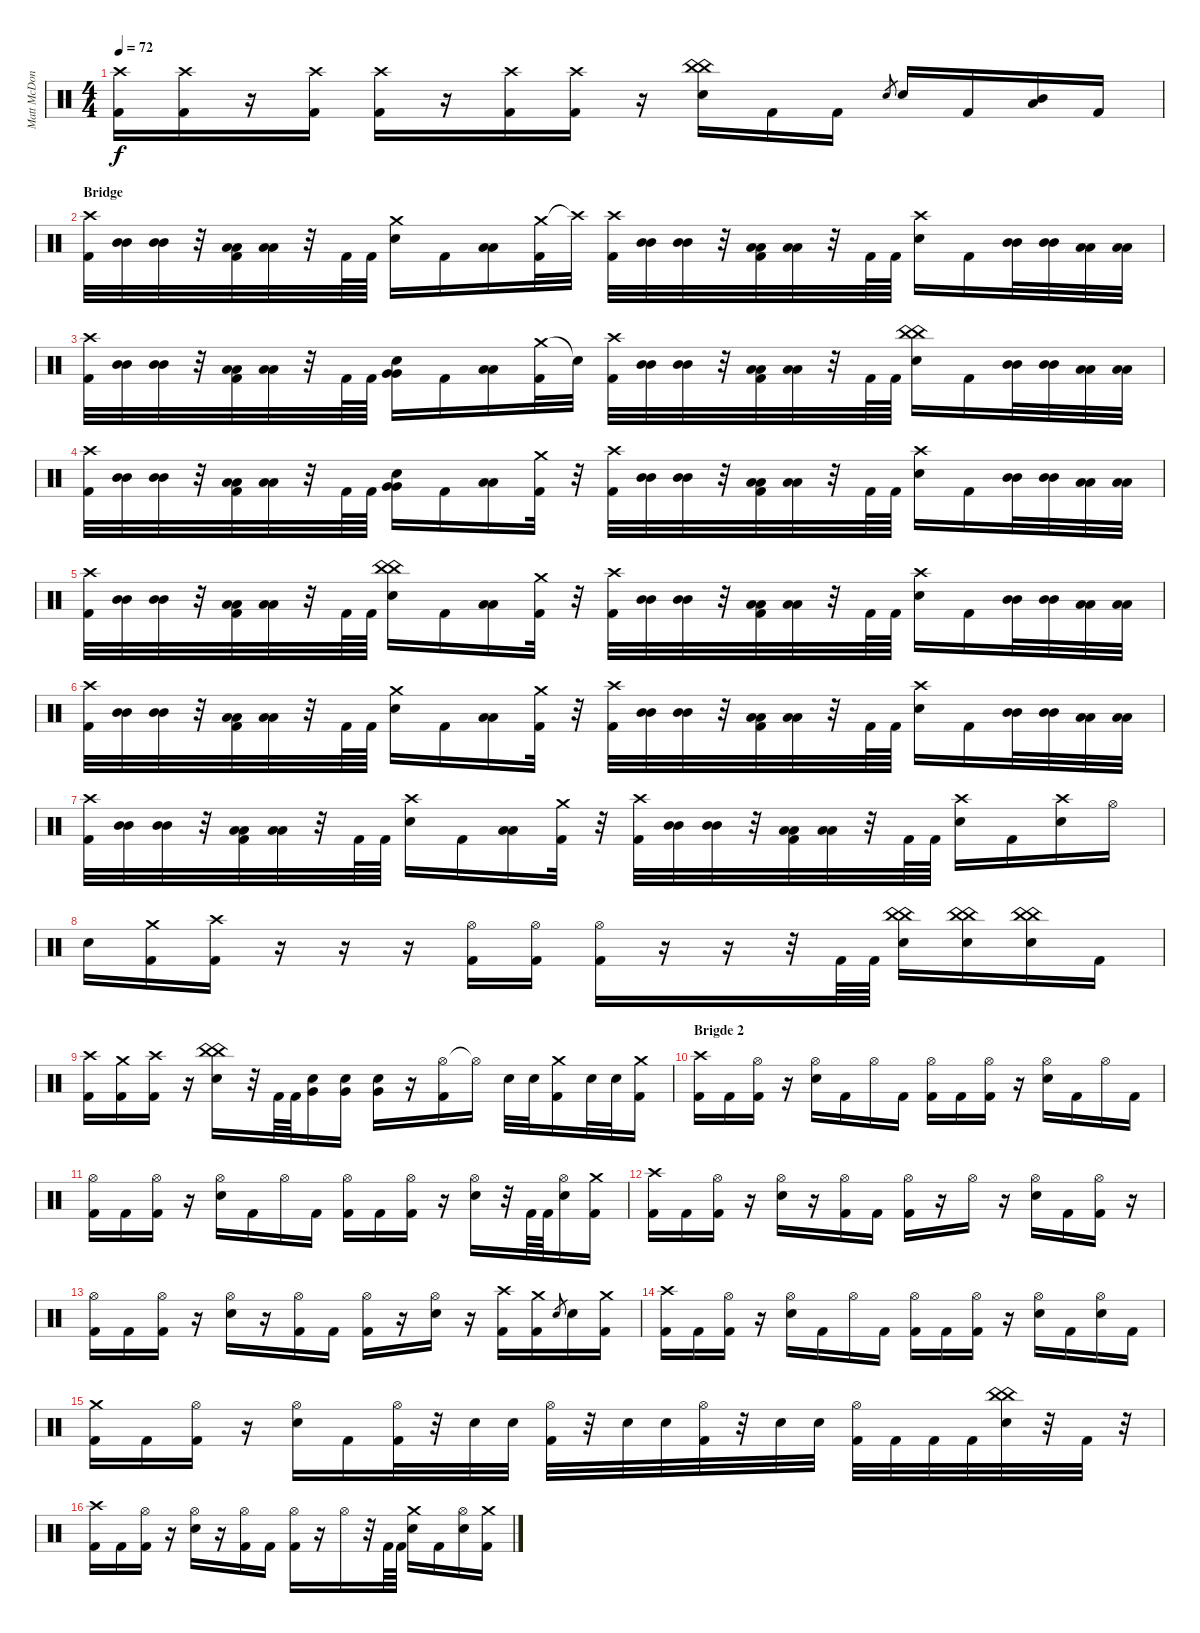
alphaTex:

\track ("Matt McDonough \"Spüg\" (Drums)" "Matt McDon") {instrument percussion}
\staff {score}
\articulation defaults
\ts (4 4)
\tempo 72
\clef neutral
\ks c
("Crash high (hit)" "Kick (hit) 2").16{dy f} ("Crash high (hit)" "Kick (hit) 2").16 r.16 ("Crash high (hit)" "Kick (hit) 2").16 ("Crash high (hit)" "Kick (hit) 2").16 r.16 ("Crash high (hit)" "Kick (hit) 2").16 ("Crash high (hit)" "Kick (hit) 2").16 r.16 ("China (hit)" "China (hit)" "Electric Snare (hit)").16 "Kick (hit) 2".16 "Kick (hit) 2".16 "Electric Snare (hit)".8{gr} "Electric Snare (hit)".16 "Kick (hit) 2".16 ("Mid Tom (hit)" "Low Tom (hit)").16 "Kick (hit) 2".16 |
\section ("" "Bridge")
("Crash high (hit)" "Kick (hit) 2").32 ("Mid Tom (hit)" "Mid Tom (hit)").32 ("Mid Tom (hit)" "Mid Tom (hit)").32 r.32 ("Low Tom (hit)" "Low Tom (hit)" "Kick (hit) 2").32 ("Low Tom (hit)" "Low Tom (hit)").32 r.32 "Kick (hit) 2".64 "Kick (hit) 2".64 ("Crash medium (hit)" "Electric Snare (hit)").16 "Kick (hit) 2".16 ("Low Tom (hit)" "Low Tom (hit)").16 ("Crash medium (hit)" "Kick (hit) 2").32 "Crash high (hit)"{t}.32 ("Crash high (hit)" "Kick (hit) 2").32 ("Mid Tom (hit)" "Mid Tom (hit)").32 ("Mid Tom (hit)" "Mid Tom (hit)").32 r.32 ("Low Tom (hit)" "Low Tom (hit)" "Kick (hit) 2").32 ("Low Tom (hit)" "Low Tom (hit)").32 r.32 "Kick (hit) 2".64 "Kick (hit) 2".64 ("Crash high (hit)" "Electric Snare (hit)").16 "Kick (hit) 2".16 ("Mid Tom (hit)" "Mid Tom (hit)").32 ("Mid Tom (hit)" "Mid Tom (hit)").32 ("Low Tom (hit)" "Low Tom (hit)").32 ("Low Tom (hit)" "Low Tom (hit)").32 |
("Crash high (hit)" "Kick (hit) 2").32 ("Mid Tom (hit)" "Mid Tom (hit)").32 ("Mid Tom (hit)" "Mid Tom (hit)").32 r.32 ("Low Tom (hit)" "Low Tom (hit)" "Kick (hit) 2").32 ("Low Tom (hit)" "Low Tom (hit)").32 r.32 "Kick (hit) 2".64 "Kick (hit) 2".64 ("Electric Snare (hit)" "Very Low Tom (hit)" "Very Low Tom (hit)").16 "Kick (hit) 2".16 ("Low Tom (hit)" "Low Tom (hit)").16 ("Crash medium (hit)" "Kick (hit) 2").32 "Snare (hit)"{t}.32 ("Crash high (hit)" "Kick (hit) 2").32 ("Mid Tom (hit)" "Mid Tom (hit)").32 ("Mid Tom (hit)" "Mid Tom (hit)").32 r.32 ("Low Tom (hit)" "Low Tom (hit)" "Kick (hit) 2").32 ("Low Tom (hit)" "Low Tom (hit)").32 r.32 "Kick (hit) 2".64 "Kick (hit) 2".64 ("China (hit)" "China (hit)" "Electric Snare (hit)").16 "Kick (hit) 2".16 ("Mid Tom (hit)" "Mid Tom (hit)").32 ("Mid Tom (hit)" "Mid Tom (hit)").32 ("Low Tom (hit)" "Low Tom (hit)").32 ("Low Tom (hit)" "Low Tom (hit)").32 |
("Crash high (hit)" "Kick (hit) 2").32 ("Mid Tom (hit)" "Mid Tom (hit)").32 ("Mid Tom (hit)" "Mid Tom (hit)").32 r.32 ("Low Tom (hit)" "Low Tom (hit)" "Kick (hit) 2").32 ("Low Tom (hit)" "Low Tom (hit)").32 r.32 "Kick (hit) 2".64 "Kick (hit) 2".64 ("Electric Snare (hit)" "Very Low Tom (hit)" "Very Low Tom (hit)").16 "Kick (hit) 2".16 ("Low Tom (hit)" "Low Tom (hit)").16 ("Crash medium (hit)" "Kick (hit) 2").32 r.32 ("Crash high (hit)" "Kick (hit) 2").32 ("Mid Tom (hit)" "Mid Tom (hit)").32 ("Mid Tom (hit)" "Mid Tom (hit)").32 r.32 ("Low Tom (hit)" "Low Tom (hit)" "Kick (hit) 2").32 ("Low Tom (hit)" "Low Tom (hit)").32 r.32 "Kick (hit) 2".64 "Kick (hit) 2".64 ("Crash high (hit)" "Electric Snare (hit)").16 "Kick (hit) 2".16 ("Mid Tom (hit)" "Mid Tom (hit)").32 ("Mid Tom (hit)" "Mid Tom (hit)").32 ("Low Tom (hit)" "Low Tom (hit)").32 ("Low Tom (hit)" "Low Tom (hit)").32 |
("Crash high (hit)" "Kick (hit) 2").32 ("Mid Tom (hit)" "Mid Tom (hit)").32 ("Mid Tom (hit)" "Mid Tom (hit)").32 r.32 ("Low Tom (hit)" "Low Tom (hit)" "Kick (hit) 2").32 ("Low Tom (hit)" "Low Tom (hit)").32 r.32 "Kick (hit) 2".64 "Kick (hit) 2".64 ("China (hit)" "China (hit)" "Electric Snare (hit)").16 "Kick (hit) 2".16 ("Low Tom (hit)" "Low Tom (hit)").16 ("Crash medium (hit)" "Kick (hit) 2").32 r.32 ("Crash high (hit)" "Kick (hit) 2").32 ("Mid Tom (hit)" "Mid Tom (hit)").32 ("Mid Tom (hit)" "Mid Tom (hit)").32 r.32 ("Low Tom (hit)" "Low Tom (hit)" "Kick (hit) 2").32 ("Low Tom (hit)" "Low Tom (hit)").32 r.32 "Kick (hit) 2".64 "Kick (hit) 2".64 ("Crash high (hit)" "Electric Snare (hit)").16 "Kick (hit) 2".16 ("Mid Tom (hit)" "Mid Tom (hit)").32 ("Mid Tom (hit)" "Mid Tom (hit)").32 ("Low Tom (hit)" "Low Tom (hit)").32 ("Low Tom (hit)" "Low Tom (hit)").32 |
("Crash high (hit)" "Kick (hit) 2").32 ("Mid Tom (hit)" "Mid Tom (hit)").32 ("Mid Tom (hit)" "Mid Tom (hit)").32 r.32 ("Low Tom (hit)" "Low Tom (hit)" "Kick (hit) 2").32 ("Low Tom (hit)" "Low Tom (hit)").32 r.32 "Kick (hit) 2".64 "Kick (hit) 2".64 ("Crash medium (hit)" "Electric Snare (hit)").16 "Kick (hit) 2".16 ("Low Tom (hit)" "Low Tom (hit)").16 ("Crash medium (hit)" "Kick (hit) 2").32 r.32 ("Crash high (hit)" "Kick (hit) 2").32 ("Mid Tom (hit)" "Mid Tom (hit)").32 ("Mid Tom (hit)" "Mid Tom (hit)").32 r.32 ("Low Tom (hit)" "Low Tom (hit)" "Kick (hit) 2").32 ("Low Tom (hit)" "Low Tom (hit)").32 r.32 "Kick (hit) 2".64 "Kick (hit) 2".64 ("Crash high (hit)" "Electric Snare (hit)").16 "Kick (hit) 2".16 ("Mid Tom (hit)" "Mid Tom (hit)").32 ("Mid Tom (hit)" "Mid Tom (hit)").32 ("Low Tom (hit)" "Low Tom (hit)").32 ("Low Tom (hit)" "Low Tom (hit)").32 |
("Crash high (hit)" "Kick (hit) 2").32 ("Mid Tom (hit)" "Mid Tom (hit)").32 ("Mid Tom (hit)" "Mid Tom (hit)").32 r.32 ("Low Tom (hit)" "Low Tom (hit)" "Kick (hit) 2").32 ("Low Tom (hit)" "Low Tom (hit)").32 r.32 "Kick (hit) 2".64 "Kick (hit) 2".64 ("Crash high (hit)" "Electric Snare (hit)").16 "Kick (hit) 2".16 ("Low Tom (hit)" "Low Tom (hit)").16 ("Crash medium (hit)" "Kick (hit) 2").32 r.32 ("Crash high (hit)" "Kick (hit) 2").32 ("Mid Tom (hit)" "Mid Tom (hit)").32 ("Mid Tom (hit)" "Mid Tom (hit)").32 r.32 ("Low Tom (hit)" "Low Tom (hit)" "Kick (hit) 2").32 ("Low Tom (hit)" "Low Tom (hit)").32 r.32 "Kick (hit) 2".64 "Kick (hit) 2".64 ("Crash high (hit)" "Electric Snare (hit)").16 "Kick (hit) 2".16 ("Crash high (hit)" "Electric Snare (hit)").16 "Hi-Hat (open)".16 |
"Electric Snare (hit)".16 ("Crash medium (hit)" "Kick (hit) 2").16 ("Crash high (hit)" "Kick (hit) 2").16 r.16 r.16 r.16 ("Hi-Hat (open)" "Kick (hit) 2").16 ("Hi-Hat (open)" "Kick (hit) 2").16 ("Hi-Hat (open)" "Kick (hit) 2").16 r.16 r.16 r.32 "Kick (hit) 2".64 "Kick (hit) 2".64 ("China (hit)" "China (hit)" "Electric Snare (hit)").16 ("China (hit)" "China (hit)" "Electric Snare (hit)").16 ("China (hit)" "China (hit)" "Electric Snare (hit)").16 "Kick (hit) 2".16 |
("Crash high (hit)" "Kick (hit) 2").16 ("Crash medium (hit)" "Kick (hit) 2").16 ("Crash high (hit)" "Kick (hit) 2").16 r.16 ("China (hit)" "China (hit)" "Electric Snare (hit)").16 r.32 "Kick (hit) 2".64 "Kick (hit) 2".64 ("Electric Snare (hit)" "Very Low Tom (hit)").16 ("Electric Snare (hit)" "Very Low Tom (hit)").16 ("Electric Snare (hit)" "Very Low Tom (hit)").16 r.16 ("Hi-Hat (open)" "Kick (hit) 2").16 "Hi-Hat (open)"{t}.16 "Electric Snare (hit)".32 "Electric Snare (hit)".32 ("Crash medium (hit)" "Kick (hit) 2").16 "Electric Snare (hit)".32 "Electric Snare (hit)".32 ("Crash medium (hit)" "Kick (hit) 2").16 |
\section ("" "Brigde 2")
("Crash high (hit)" "Kick (hit) 2").16 "Kick (hit) 2".16 ("Hi-Hat (open)" "Kick (hit) 2").16 r.16 ("Hi-Hat (open)" "Electric Snare (hit)").16 "Kick (hit) 2".16 "Hi-Hat (open)".16 "Kick (hit) 2".16 ("Hi-Hat (open)" "Kick (hit) 2").16 "Kick (hit) 2".16 ("Hi-Hat (open)" "Kick (hit) 2").16 r.16 ("Hi-Hat (open)" "Electric Snare (hit)").16 "Kick (hit) 2".16 "Hi-Hat (open)".16 "Kick (hit) 2".16 |
("Hi-Hat (open)" "Kick (hit) 2").16 "Kick (hit) 2".16 ("Hi-Hat (open)" "Kick (hit) 2").16 r.16 ("Hi-Hat (open)" "Electric Snare (hit)").16 "Kick (hit) 2".16 "Hi-Hat (open)".16 "Kick (hit) 2".16 ("Hi-Hat (open)" "Kick (hit) 2").16 "Kick (hit) 2".16 ("Hi-Hat (open)" "Kick (hit) 2").16 r.16 ("Hi-Hat (open)" "Electric Snare (hit)").16 r.32 "Kick (hit) 2".64 "Kick (hit) 2".64 ("Hi-Hat (open)" "Electric Snare (hit)").16 ("Crash medium (hit)" "Kick (hit) 2").16 |
("Crash high (hit)" "Kick (hit) 2").16 "Kick (hit) 2".16 ("Hi-Hat (open)" "Kick (hit) 2").16 r.16 ("Hi-Hat (open)" "Electric Snare (hit)").16 r.16 ("Hi-Hat (open)" "Kick (hit) 2").16 "Kick (hit) 2".16 ("Hi-Hat (open)" "Kick (hit) 2").16 r.16 "Hi-Hat (open)".16 r.16 ("Hi-Hat (open)" "Electric Snare (hit)").16 "Kick (hit) 2".16 ("Hi-Hat (open)" "Kick (hit) 2").16 r.16 |
("Hi-Hat (open)" "Kick (hit) 2").16 "Kick (hit) 2".16 ("Hi-Hat (open)" "Kick (hit) 2").16 r.16 ("Hi-Hat (open)" "Electric Snare (hit)").16 r.16 ("Hi-Hat (open)" "Kick (hit) 2").16 "Kick (hit) 2".16 ("Hi-Hat (open)" "Kick (hit) 2").16 r.16 ("Hi-Hat (open)" "Electric Snare (hit)").16 r.16 ("Crash high (hit)" "Kick (hit) 2").16 ("Crash medium (hit)" "Kick (hit) 2").16 "Electric Snare (hit)".8{gr} "Electric Snare (hit)".16 ("Crash medium (hit)" "Kick (hit) 2").16 |
("Crash high (hit)" "Kick (hit) 2").16 "Kick (hit) 2".16 ("Hi-Hat (open)" "Kick (hit) 2").16 r.16 ("Hi-Hat (open)" "Electric Snare (hit)").16 "Kick (hit) 2".16 "Hi-Hat (open)".16 "Kick (hit) 2".16 ("Hi-Hat (open)" "Kick (hit) 2").16 "Kick (hit) 2".16 ("Hi-Hat (open)" "Kick (hit) 2").16 r.16 ("Hi-Hat (open)" "Electric Snare (hit)").16 "Kick (hit) 2".16 ("Hi-Hat (open)" "Electric Snare (hit)").16 "Kick (hit) 2".16 |
("Crash medium (hit)" "Kick (hit) 2").16 "Kick (hit) 2".16 ("Hi-Hat (open)" "Kick (hit) 2").16 r.16 ("Hi-Hat (open)" "Electric Snare (hit)").16 "Kick (hit) 2".16 ("Hi-Hat (open)" "Kick (hit) 2").32 r.32 "Electric Snare (hit)".32 "Electric Snare (hit)".32 ("Hi-Hat (open)" "Kick (hit) 2").32 r.32 "Electric Snare (hit)".32 "Electric Snare (hit)".32 ("Hi-Hat (open)" "Kick (hit) 2").32 r.32 "Electric Snare (hit)".32 "Electric Snare (hit)".32 ("Hi-Hat (open)" "Kick (hit) 2").32 "Kick (hit) 2".32 "Kick (hit) 2".32 "Kick (hit) 2".32 ("China (hit)" "China (hit)" "Electric Snare (hit)").32 r.32 "Kick (hit) 2".32 r.32 |
("Crash high (hit)" "Kick (hit) 2").16 "Kick (hit) 2".16 ("Hi-Hat (open)" "Kick (hit) 2").16 r.16 ("Hi-Hat (open)" "Electric Snare (hit)").16 r.16 ("Hi-Hat (open)" "Kick (hit) 2").16 "Kick (hit) 2".16 ("Hi-Hat (open)" "Kick (hit) 2").16 r.16 "Hi-Hat (open)".16 r.32 "Kick (hit) 2".64 "Kick (hit) 2".64 ("Crash medium (hit)" "Electric Snare (hit)").16 "Kick (hit) 2".16 ("Hi-Hat (open)" "Electric Snare (hit)").16 ("Crash medium (hit)" "Kick (hit) 2").16
